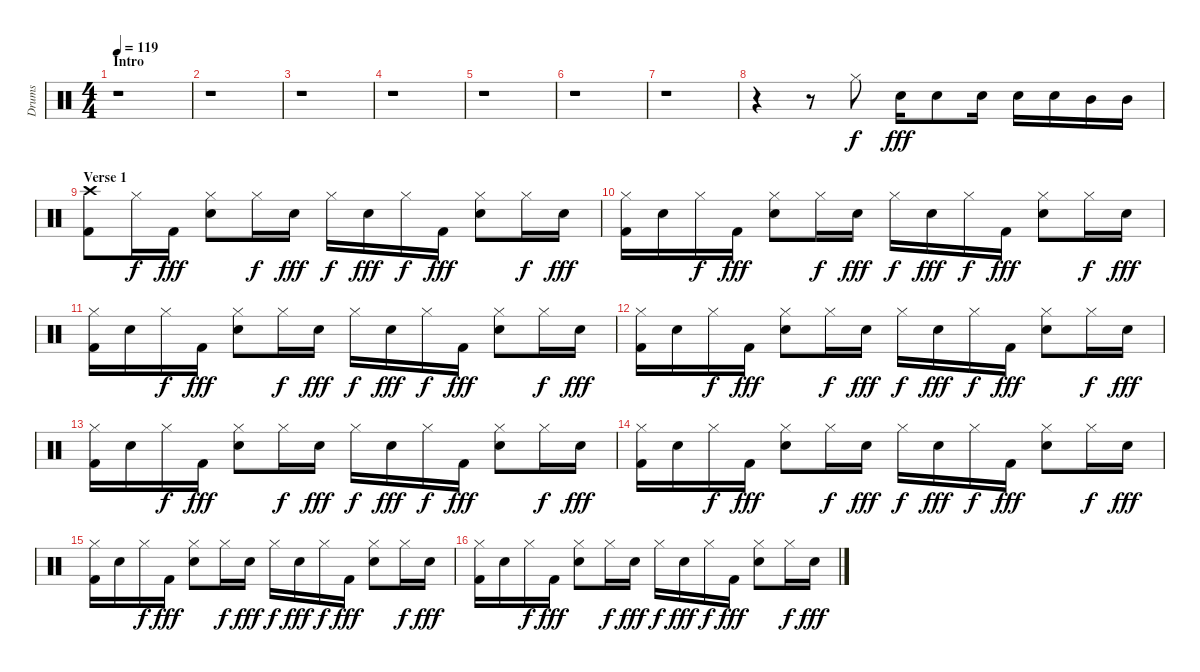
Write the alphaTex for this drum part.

\track ("Drums" "Drums") {instrument percussion}
\staff {score}
\articulation defaults
\ts (4 4)
\section ("" "Intro")
\tempo 119
\clef neutral
\ks c
r.1{dy f} |
r.1 |
r.1 |
r.1 |
r.1 |
r.1 |
r.1 |
r.4 r.8 "Hi-Hat (closed)".8 "Electric Snare (hit)".16{dy fff} "Electric Snare (hit)".8 "Electric Snare (hit)".16 "Electric Snare (hit)".16 "Electric Snare (hit)".16 "Mid Tom (hit)".16 "Mid Tom (hit)".16 |
\section ("" "Verse 1")
("Crash high (hit)" "Kick (hit) 2").8 "Hi-Hat (closed)".16{dy f} "Kick (hit) 2".16{dy fff} ("Hi-Hat (closed)" "Electric Snare (hit)").8 "Hi-Hat (closed)".16{dy f} "Electric Snare (hit)".16{dy fff} "Hi-Hat (closed)".16{dy f} "Electric Snare (hit)".16{dy fff} "Hi-Hat (closed)".16{dy f} "Kick (hit) 2".16{dy fff} ("Hi-Hat (closed)" "Electric Snare (hit)").8 "Hi-Hat (closed)".16{dy f} "Electric Snare (hit)".16{dy fff} |
("Hi-Hat (closed)" "Kick (hit) 2").16 "Electric Snare (hit)".16 "Hi-Hat (closed)".16{dy f} "Kick (hit) 2".16{dy fff} ("Hi-Hat (closed)" "Electric Snare (hit)").8 "Hi-Hat (closed)".16{dy f} "Electric Snare (hit)".16{dy fff} "Hi-Hat (closed)".16{dy f} "Electric Snare (hit)".16{dy fff} "Hi-Hat (closed)".16{dy f} "Kick (hit) 2".16{dy fff} ("Hi-Hat (closed)" "Electric Snare (hit)").8 "Hi-Hat (closed)".16{dy f} "Electric Snare (hit)".16{dy fff} |
("Hi-Hat (closed)" "Kick (hit) 2").16 "Electric Snare (hit)".16 "Hi-Hat (closed)".16{dy f} "Kick (hit) 2".16{dy fff} ("Hi-Hat (closed)" "Electric Snare (hit)").8 "Hi-Hat (closed)".16{dy f} "Electric Snare (hit)".16{dy fff} "Hi-Hat (closed)".16{dy f} "Electric Snare (hit)".16{dy fff} "Hi-Hat (closed)".16{dy f} "Kick (hit) 2".16{dy fff} ("Hi-Hat (closed)" "Electric Snare (hit)").8 "Hi-Hat (closed)".16{dy f} "Electric Snare (hit)".16{dy fff} |
("Hi-Hat (closed)" "Kick (hit) 2").16 "Electric Snare (hit)".16 "Hi-Hat (closed)".16{dy f} "Kick (hit) 2".16{dy fff} ("Hi-Hat (closed)" "Electric Snare (hit)").8 "Hi-Hat (closed)".16{dy f} "Electric Snare (hit)".16{dy fff} "Hi-Hat (closed)".16{dy f} "Electric Snare (hit)".16{dy fff} "Hi-Hat (closed)".16{dy f} "Kick (hit) 2".16{dy fff} ("Hi-Hat (closed)" "Electric Snare (hit)").8 "Hi-Hat (closed)".16{dy f} "Electric Snare (hit)".16{dy fff} |
("Hi-Hat (closed)" "Kick (hit) 2").16 "Electric Snare (hit)".16 "Hi-Hat (closed)".16{dy f} "Kick (hit) 2".16{dy fff} ("Hi-Hat (closed)" "Electric Snare (hit)").8 "Hi-Hat (closed)".16{dy f} "Electric Snare (hit)".16{dy fff} "Hi-Hat (closed)".16{dy f} "Electric Snare (hit)".16{dy fff} "Hi-Hat (closed)".16{dy f} "Kick (hit) 2".16{dy fff} ("Hi-Hat (closed)" "Electric Snare (hit)").8 "Hi-Hat (closed)".16{dy f} "Electric Snare (hit)".16{dy fff} |
("Hi-Hat (closed)" "Kick (hit) 2").16 "Electric Snare (hit)".16 "Hi-Hat (closed)".16{dy f} "Kick (hit) 2".16{dy fff} ("Hi-Hat (closed)" "Electric Snare (hit)").8 "Hi-Hat (closed)".16{dy f} "Electric Snare (hit)".16{dy fff} "Hi-Hat (closed)".16{dy f} "Electric Snare (hit)".16{dy fff} "Hi-Hat (closed)".16{dy f} "Kick (hit) 2".16{dy fff} ("Hi-Hat (closed)" "Electric Snare (hit)").8 "Hi-Hat (closed)".16{dy f} "Electric Snare (hit)".16{dy fff} |
("Hi-Hat (closed)" "Kick (hit) 2").16 "Electric Snare (hit)".16 "Hi-Hat (closed)".16{dy f} "Kick (hit) 2".16{dy fff} ("Hi-Hat (closed)" "Electric Snare (hit)").8 "Hi-Hat (closed)".16{dy f} "Electric Snare (hit)".16{dy fff} "Hi-Hat (closed)".16{dy f} "Electric Snare (hit)".16{dy fff} "Hi-Hat (closed)".16{dy f} "Kick (hit) 2".16{dy fff} ("Hi-Hat (closed)" "Electric Snare (hit)").8 "Hi-Hat (closed)".16{dy f} "Electric Snare (hit)".16{dy fff} |
("Hi-Hat (closed)" "Kick (hit) 2").16 "Electric Snare (hit)".16 "Hi-Hat (closed)".16{dy f} "Kick (hit) 2".16{dy fff} ("Hi-Hat (closed)" "Electric Snare (hit)").8 "Hi-Hat (closed)".16{dy f} "Electric Snare (hit)".16{dy fff} "Hi-Hat (closed)".16{dy f} "Electric Snare (hit)".16{dy fff} "Hi-Hat (closed)".16{dy f} "Kick (hit) 2".16{dy fff} ("Hi-Hat (closed)" "Electric Snare (hit)").8 "Hi-Hat (closed)".16{dy f} "Electric Snare (hit)".16{dy fff}
